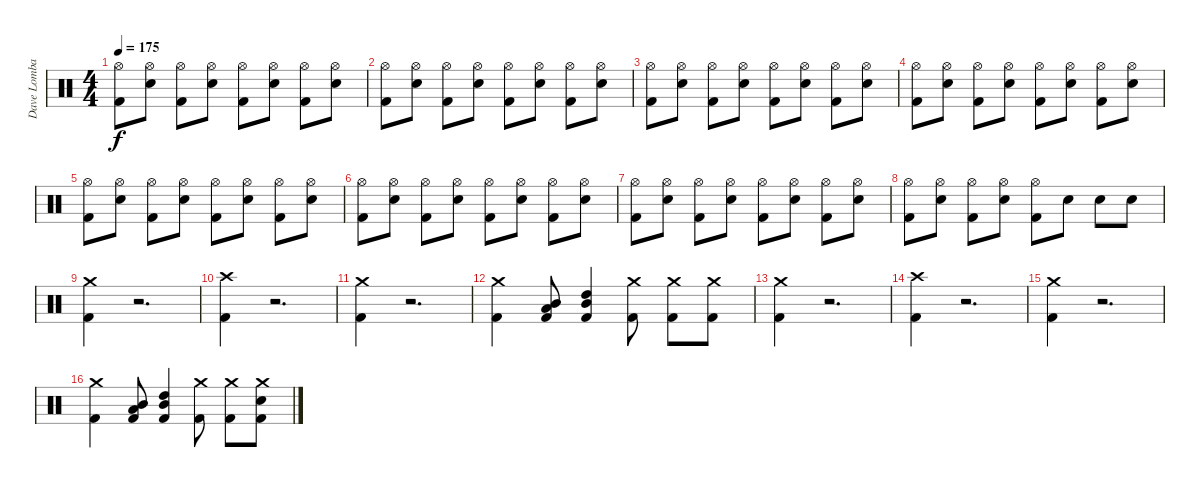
\track ("Dave Lombardo" "Dave Lomba") {instrument percussion}
\staff {score}
\articulation defaults
\ts (4 4)
\tempo 175
\clef neutral
\ks c
("Hi-Hat (open)" "Kick (hit) 2").8{dy f} ("Hi-Hat (open)" "Snare (hit) 2").8 ("Hi-Hat (open)" "Kick (hit) 2").8 ("Hi-Hat (open)" "Snare (hit) 2").8 ("Hi-Hat (open)" "Kick (hit) 2").8 ("Hi-Hat (open)" "Snare (hit) 2").8 ("Hi-Hat (open)" "Kick (hit) 2").8 ("Hi-Hat (open)" "Snare (hit) 2").8 |
("Hi-Hat (open)" "Kick (hit) 2").8 ("Hi-Hat (open)" "Snare (hit) 2").8 ("Hi-Hat (open)" "Kick (hit) 2").8 ("Hi-Hat (open)" "Snare (hit) 2").8 ("Hi-Hat (open)" "Kick (hit) 2").8 ("Hi-Hat (open)" "Snare (hit) 2").8 ("Hi-Hat (open)" "Kick (hit) 2").8 ("Hi-Hat (open)" "Snare (hit) 2").8 |
("Hi-Hat (open)" "Kick (hit) 2").8 ("Hi-Hat (open)" "Snare (hit) 2").8 ("Hi-Hat (open)" "Kick (hit) 2").8 ("Hi-Hat (open)" "Snare (hit) 2").8 ("Hi-Hat (open)" "Kick (hit) 2").8 ("Hi-Hat (open)" "Snare (hit) 2").8 ("Hi-Hat (open)" "Kick (hit) 2").8 ("Hi-Hat (open)" "Snare (hit) 2").8 |
("Hi-Hat (open)" "Kick (hit) 2").8 ("Hi-Hat (open)" "Snare (hit) 2").8 ("Hi-Hat (open)" "Kick (hit) 2").8 ("Hi-Hat (open)" "Snare (hit) 2").8 ("Hi-Hat (open)" "Kick (hit) 2").8 ("Hi-Hat (open)" "Snare (hit) 2").8 ("Hi-Hat (open)" "Kick (hit) 2").8 ("Hi-Hat (open)" "Snare (hit) 2").8 |
("Hi-Hat (open)" "Kick (hit) 2").8 ("Hi-Hat (open)" "Snare (hit) 2").8 ("Hi-Hat (open)" "Kick (hit) 2").8 ("Hi-Hat (open)" "Snare (hit) 2").8 ("Hi-Hat (open)" "Kick (hit) 2").8 ("Hi-Hat (open)" "Snare (hit) 2").8 ("Hi-Hat (open)" "Kick (hit) 2").8 ("Hi-Hat (open)" "Snare (hit) 2").8 |
("Hi-Hat (open)" "Kick (hit) 2").8 ("Hi-Hat (open)" "Snare (hit) 2").8 ("Hi-Hat (open)" "Kick (hit) 2").8 ("Hi-Hat (open)" "Snare (hit) 2").8 ("Hi-Hat (open)" "Kick (hit) 2").8 ("Hi-Hat (open)" "Snare (hit) 2").8 ("Hi-Hat (open)" "Kick (hit) 2").8 ("Hi-Hat (open)" "Snare (hit) 2").8 |
("Hi-Hat (open)" "Kick (hit) 2").8 ("Hi-Hat (open)" "Snare (hit) 2").8 ("Hi-Hat (open)" "Kick (hit) 2").8 ("Hi-Hat (open)" "Snare (hit) 2").8 ("Hi-Hat (open)" "Kick (hit) 2").8 ("Hi-Hat (open)" "Snare (hit) 2").8 ("Hi-Hat (open)" "Kick (hit) 2").8 ("Hi-Hat (open)" "Snare (hit) 2").8 |
("Hi-Hat (open)" "Kick (hit) 2").8 ("Hi-Hat (open)" "Snare (hit) 2").8 ("Hi-Hat (open)" "Kick (hit) 2").8 ("Hi-Hat (open)" "Snare (hit) 2").8 ("Hi-Hat (open)" "Kick (hit) 2").8 "Snare (hit) 2".8 "Snare (hit) 2".8 "Snare (hit) 2".8 |
("Crash medium (hit)" "Kick (hit) 2").4 r.2{d} |
("Crash high (hit)" "Kick (hit) 2").4 r.2{d} |
("Crash medium (hit)" "Kick (hit) 2").4 r.2{d} |
("Crash medium (hit)" "Kick (hit) 2").4 ("Low Tom (hit)" "Mid Tom (hit)" "Kick (hit) 2").8 ("High Tom (hit)" "Mid Tom (hit)" "Kick (hit) 2").4 ("Crash medium (hit)" "Kick (hit) 2").8 ("Crash medium (hit)" "Kick (hit) 2").8 ("Crash medium (hit)" "Kick (hit) 2").8 |
("Crash medium (hit)" "Kick (hit) 2").4 r.2{d} |
("Crash high (hit)" "Kick (hit) 2").4 r.2{d} |
("Crash medium (hit)" "Kick (hit) 2").4 r.2{d} |
("Crash medium (hit)" "Kick (hit) 2").4 ("Low Tom (hit)" "Mid Tom (hit)" "Kick (hit) 2").8 ("High Tom (hit)" "Mid Tom (hit)" "Kick (hit) 2").4 ("Crash medium (hit)" "Kick (hit) 2").8 ("Crash medium (hit)" "Kick (hit) 2").8 ("Crash medium (hit)" "Snare (hit) 2" "Kick (hit) 2").8
